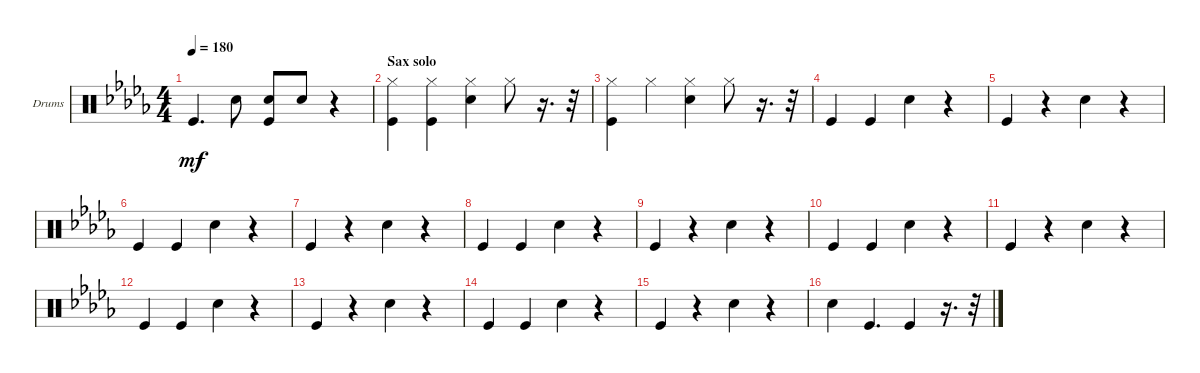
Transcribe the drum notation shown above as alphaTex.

\bracketExtendMode groupsimilarinstruments
\firstSystemTrackNameOrientation horizontal
\otherSystemsTrackNameOrientation horizontal
\track ("Drums" "Drums") {instrument percussion}
\staff {score}
\articulation defaults
\ts (4 4)
\tempo 180
\clef neutral
\ks bbminor "Kick (hit)".4{d dy mf} "Snare (hit) 2".8
("Kick (hit)" "Snare (hit) 2").8 "Snare (hit) 2".8 r.4 |
\section ("" "Sax solo")
("Hi-Hat (closed)" "Kick (hit)").4 ("Kick (hit)" "Hi-Hat (closed)").4 ("Snare (hit) 2" "Hi-Hat (closed)").4 "Hi-Hat (closed)".8 r.16{d} r.32 |
("Kick (hit)" "Hi-Hat (closed)").4 "Hi-Hat (closed)".4 ("Snare (hit) 2" "Hi-Hat (closed)").4 "Hi-Hat (closed)".8 r.16{d} r.32 |
"Kick (hit)".4 "Kick (hit)".4 "Snare (hit) 2".4 r.4 |
"Kick (hit)".4 r.4 "Snare (hit) 2".4 r.4 |
"Kick (hit)".4 "Kick (hit)".4 "Snare (hit) 2".4 r.4 |
"Kick (hit)".4 r.4 "Snare (hit) 2".4 r.4 |
"Kick (hit)".4 "Kick (hit)".4 "Snare (hit) 2".4 r.4 |
"Kick (hit)".4 r.4 "Snare (hit) 2".4 r.4 |
"Kick (hit)".4 "Kick (hit)".4 "Snare (hit) 2".4 r.4 |
"Kick (hit)".4 r.4 "Snare (hit) 2".4 r.4 |
"Kick (hit)".4 "Kick (hit)".4 "Snare (hit) 2".4 r.4 |
"Kick (hit)".4 r.4 "Snare (hit) 2".4 r.4 |
"Kick (hit)".4 "Kick (hit)".4 "Snare (hit) 2".4 r.4 |
"Kick (hit)".4 r.4 "Snare (hit) 2".4 r.4 |
"Snare (hit) 2".4 "Kick (hit)".4{d} "Kick (hit)".4 r.16{d} r.32
